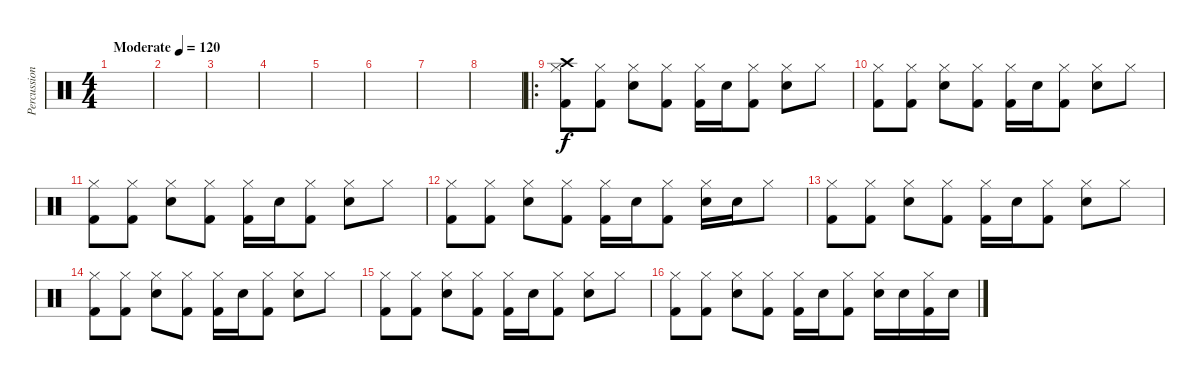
\track ("Percussion" "Percussion") {instrument percussion}
\staff {score}
\articulation defaults
\ts (4 4)
\tempo (120 "Moderate")
\clef neutral
\ks c
|
|
|
|
|
|
|
|
\ro
("Crash high (hit)" "Hi-Hat (closed)" "Kick (hit) 2").8 ("Hi-Hat (closed)" "Kick (hit) 2").8 ("Hi-Hat (closed)" "Electric Snare (hit)").8 ("Hi-Hat (closed)" "Kick (hit) 2").8 ("Hi-Hat (closed)" "Kick (hit) 2").16 "Electric Snare (hit)".16 ("Hi-Hat (closed)" "Kick (hit) 2").8 ("Hi-Hat (closed)" "Electric Snare (hit)").8 "Hi-Hat (closed)".8 |
("Hi-Hat (closed)" "Kick (hit) 2").8 ("Hi-Hat (closed)" "Kick (hit) 2").8 ("Hi-Hat (closed)" "Electric Snare (hit)").8 ("Hi-Hat (closed)" "Kick (hit) 2").8 ("Hi-Hat (closed)" "Kick (hit) 2").16 "Electric Snare (hit)".16 ("Hi-Hat (closed)" "Kick (hit) 2").8 ("Hi-Hat (closed)" "Electric Snare (hit)").8 "Hi-Hat (closed)".8 |
("Hi-Hat (closed)" "Kick (hit) 2").8 ("Hi-Hat (closed)" "Kick (hit) 2").8 ("Hi-Hat (closed)" "Electric Snare (hit)").8 ("Hi-Hat (closed)" "Kick (hit) 2").8 ("Hi-Hat (closed)" "Kick (hit) 2").16 "Electric Snare (hit)".16 ("Hi-Hat (closed)" "Kick (hit) 2").8 ("Hi-Hat (closed)" "Electric Snare (hit)").8 "Hi-Hat (closed)".8 |
("Hi-Hat (closed)" "Kick (hit) 2").8 ("Hi-Hat (closed)" "Kick (hit) 2").8 ("Hi-Hat (closed)" "Electric Snare (hit)").8 ("Hi-Hat (closed)" "Kick (hit) 2").8 ("Hi-Hat (closed)" "Kick (hit) 2").16 "Electric Snare (hit)".16 ("Hi-Hat (closed)" "Kick (hit) 2").8 ("Hi-Hat (closed)" "Electric Snare (hit)").16 "Electric Snare (hit)".16 "Hi-Hat (closed)".8 |
("Hi-Hat (closed)" "Kick (hit) 2").8 ("Hi-Hat (closed)" "Kick (hit) 2").8 ("Hi-Hat (closed)" "Electric Snare (hit)").8 ("Hi-Hat (closed)" "Kick (hit) 2").8 ("Hi-Hat (closed)" "Kick (hit) 2").16 "Electric Snare (hit)".16 ("Hi-Hat (closed)" "Kick (hit) 2").8 ("Hi-Hat (closed)" "Electric Snare (hit)").8 "Hi-Hat (closed)".8 |
("Hi-Hat (closed)" "Kick (hit) 2").8 ("Hi-Hat (closed)" "Kick (hit) 2").8 ("Hi-Hat (closed)" "Electric Snare (hit)").8 ("Hi-Hat (closed)" "Kick (hit) 2").8 ("Hi-Hat (closed)" "Kick (hit) 2").16 "Electric Snare (hit)".16 ("Hi-Hat (closed)" "Kick (hit) 2").8 ("Hi-Hat (closed)" "Electric Snare (hit)").8 "Hi-Hat (closed)".8 |
("Hi-Hat (closed)" "Kick (hit) 2").8 ("Hi-Hat (closed)" "Kick (hit) 2").8 ("Hi-Hat (closed)" "Electric Snare (hit)").8 ("Hi-Hat (closed)" "Kick (hit) 2").8 ("Hi-Hat (closed)" "Kick (hit) 2").16 "Electric Snare (hit)".16 ("Hi-Hat (closed)" "Kick (hit) 2").8 ("Hi-Hat (closed)" "Electric Snare (hit)").8 "Hi-Hat (closed)".8 |
("Hi-Hat (closed)" "Kick (hit) 2").8 ("Hi-Hat (closed)" "Kick (hit) 2").8 ("Hi-Hat (closed)" "Electric Snare (hit)").8 ("Hi-Hat (closed)" "Kick (hit) 2").8 ("Hi-Hat (closed)" "Kick (hit) 2").16 "Electric Snare (hit)".16 ("Hi-Hat (closed)" "Kick (hit) 2").8 ("Hi-Hat (closed)" "Electric Snare (hit)").16 "Electric Snare (hit)".16 ("Hi-Hat (closed)" "Kick (hit) 2").16 "Electric Snare (hit)".16
